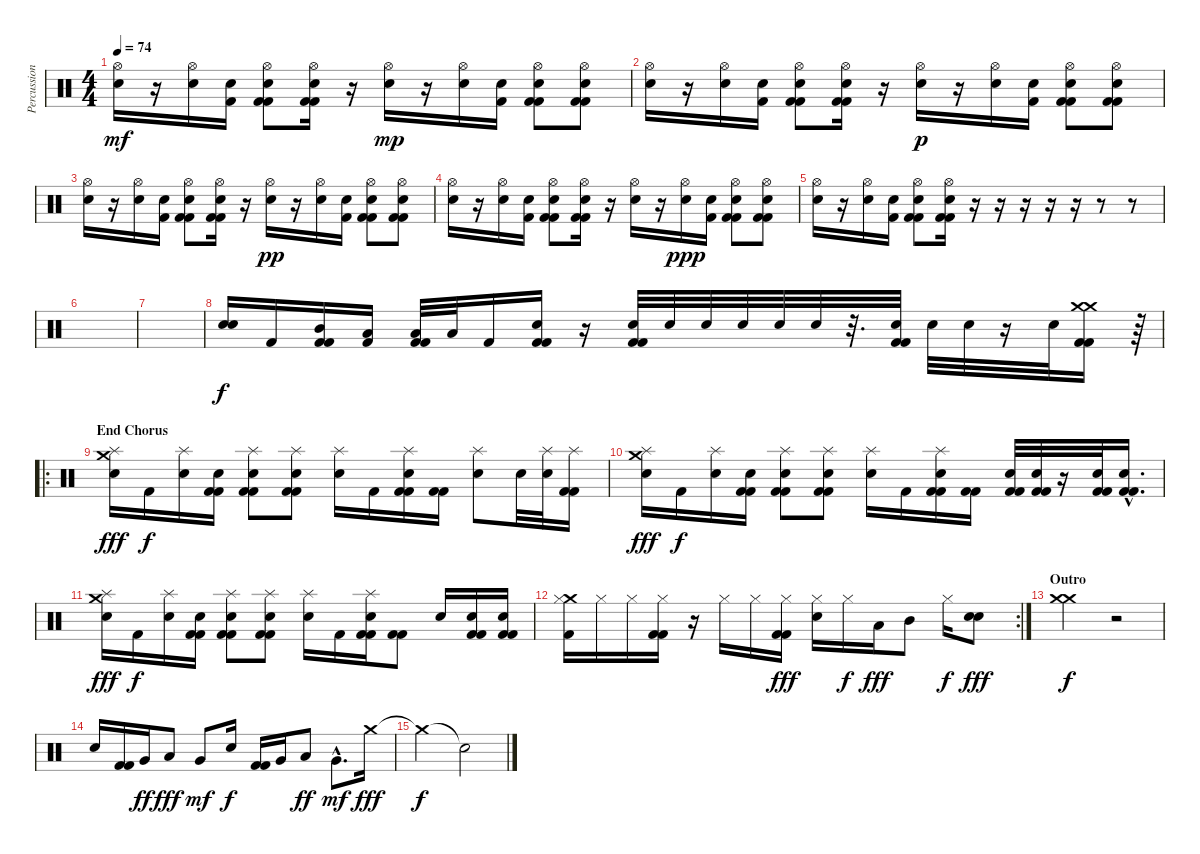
\track ("Percussion" "Percussion") {instrument percussion}
\staff {score}
\articulation defaults
\ts (4 4)
\tempo 74
\clef neutral
\ks c
("Hi-Hat (open)" "Snare (hit) 2").16{dy mf} r.16 ("Hi-Hat (open)" "Snare (hit) 2").16 ("Snare (hit) 2" "Kick (hit) 2").16 ("Hi-Hat (open)" "Snare (hit) 2" "Kick (hit) 2" "Kick (hit) 2").8 ("Hi-Hat (open)" "Snare (hit) 2" "Kick (hit) 2" "Kick (hit) 2").16 r.16 ("Hi-Hat (open)" "Snare (hit) 2").16{dy mp} r.16 ("Hi-Hat (open)" "Snare (hit) 2").16 ("Snare (hit) 2" "Kick (hit) 2").16 ("Hi-Hat (open)" "Snare (hit) 2" "Kick (hit) 2" "Kick (hit) 2").8 ("Hi-Hat (open)" "Snare (hit) 2" "Kick (hit) 2" "Kick (hit) 2").8 |
("Hi-Hat (open)" "Snare (hit) 2").16 r.16 ("Hi-Hat (open)" "Snare (hit) 2").16 ("Snare (hit) 2" "Kick (hit) 2").16 ("Hi-Hat (open)" "Snare (hit) 2" "Kick (hit) 2" "Kick (hit) 2").8 ("Hi-Hat (open)" "Snare (hit) 2" "Kick (hit) 2" "Kick (hit) 2").16 r.16 ("Hi-Hat (open)" "Snare (hit) 2").16{dy p} r.16 ("Hi-Hat (open)" "Snare (hit) 2").16 ("Snare (hit) 2" "Kick (hit) 2").16 ("Hi-Hat (open)" "Snare (hit) 2" "Kick (hit) 2" "Kick (hit) 2").8 ("Hi-Hat (open)" "Snare (hit) 2" "Kick (hit) 2" "Kick (hit) 2").8 |
("Hi-Hat (open)" "Snare (hit) 2").16 r.16 ("Hi-Hat (open)" "Snare (hit) 2").16 ("Snare (hit) 2" "Kick (hit) 2").16 ("Hi-Hat (open)" "Snare (hit) 2" "Kick (hit) 2" "Kick (hit) 2").8 ("Hi-Hat (open)" "Snare (hit) 2" "Kick (hit) 2" "Kick (hit) 2").16 r.16 ("Hi-Hat (open)" "Snare (hit) 2").16{dy pp} r.16 ("Hi-Hat (open)" "Snare (hit) 2").16 ("Snare (hit) 2" "Kick (hit) 2").16 ("Hi-Hat (open)" "Snare (hit) 2" "Kick (hit) 2" "Kick (hit) 2").8 ("Hi-Hat (open)" "Snare (hit) 2" "Kick (hit) 2" "Kick (hit) 2").8 |
("Hi-Hat (open)" "Snare (hit) 2").16 r.16 ("Hi-Hat (open)" "Snare (hit) 2").16 ("Snare (hit) 2" "Kick (hit) 2").16 ("Hi-Hat (open)" "Snare (hit) 2" "Kick (hit) 2" "Kick (hit) 2").8 ("Hi-Hat (open)" "Snare (hit) 2" "Kick (hit) 2" "Kick (hit) 2").16 r.16 ("Hi-Hat (open)" "Snare (hit) 2").16 r.16 ("Hi-Hat (open)" "Snare (hit) 2").16{dy ppp} ("Snare (hit) 2" "Kick (hit) 2").16 ("Hi-Hat (open)" "Snare (hit) 2" "Kick (hit) 2" "Kick (hit) 2").8 ("Hi-Hat (open)" "Snare (hit) 2" "Kick (hit) 2" "Kick (hit) 2").8 |
("Hi-Hat (open)" "Snare (hit) 2").16 r.16 ("Hi-Hat (open)" "Snare (hit) 2").16 ("Snare (hit) 2" "Kick (hit) 2").16 ("Hi-Hat (open)" "Snare (hit) 2" "Kick (hit) 2" "Kick (hit) 2").8 ("Hi-Hat (open)" "Snare (hit) 2" "Kick (hit) 2" "Kick (hit) 2").16 r.16 r.16 r.16 r.16 r.16 r.8 r.8 |
|
|
("Snare (hit) 2" "Snare (hit) 2").16{dy f} "Kick (hit) 2".16 ("Mid Tom (hit)" "Kick (hit) 2" "Kick (hit) 2").16 ("Low Tom (hit)" "Kick (hit) 2").16 ("Low Tom (hit)" "Kick (hit) 2" "Kick (hit) 2").32 "Low Tom (hit)".32 "Kick (hit) 2".16 ("Snare (hit) 2" "Kick (hit) 2" "Kick (hit) 2").16 r.16 ("Snare (hit) 2" "Kick (hit) 2" "Kick (hit) 2").32 "Snare (hit) 2".32 "Snare (hit) 2".32 "Snare (hit) 2".32 "Snare (hit) 2".32 "Snare (hit) 2".32 r.32{d} ("Snare (hit) 2" "Kick (hit) 2" "Kick (hit) 2").32 "Snare (hit) 2".32 "Snare (hit) 2".32 r.16 "Snare (hit) 2".32 ("Crash medium (hit)" "Crash medium (hit)" "Kick (hit) 2" "Kick (hit) 2").16 r.64 |
\ro
\section ("" "End Chorus")
("Crash medium (hit)" "Splash (hit)" "Snare (hit) 2").16{dy fff} "Kick (hit) 2".16{dy f} ("Splash (hit)" "Snare (hit) 2").16 ("Snare (hit) 2" "Kick (hit) 2" "Kick (hit) 2").16 ("Splash (hit)" "Snare (hit) 2" "Kick (hit) 2" "Kick (hit) 2").8 ("Splash (hit)" "Snare (hit) 2" "Kick (hit) 2" "Kick (hit) 2").8 ("Splash (hit)" "Snare (hit) 2").16 "Kick (hit) 2".16 ("Splash (hit)" "Snare (hit) 2" "Kick (hit) 2" "Kick (hit) 2").16 ("Kick (hit) 2" "Kick (hit) 2").16 ("Splash (hit)" "Snare (hit) 2").8 "Snare (hit) 2".32 ("Splash (hit)" "Snare (hit) 2").32 ("Splash (hit)" "Kick (hit) 2" "Kick (hit) 2").16 |
("Crash medium (hit)" "Splash (hit)" "Snare (hit) 2").16{dy fff} "Kick (hit) 2".16{dy f} ("Splash (hit)" "Snare (hit) 2").16 ("Snare (hit) 2" "Kick (hit) 2" "Kick (hit) 2").16 ("Splash (hit)" "Snare (hit) 2" "Kick (hit) 2" "Kick (hit) 2").8 ("Splash (hit)" "Snare (hit) 2" "Kick (hit) 2" "Kick (hit) 2").8 ("Splash (hit)" "Snare (hit) 2").16 "Kick (hit) 2".16 ("Splash (hit)" "Snare (hit) 2" "Kick (hit) 2" "Kick (hit) 2").16 ("Kick (hit) 2" "Kick (hit) 2").16 ("Snare (hit) 2" "Kick (hit) 2" "Kick (hit) 2").32 ("Snare (hit) 2" "Kick (hit) 2" "Kick (hit) 2").32 r.16 ("Snare (hit) 2" "Kick (hit) 2" "Kick (hit) 2").32 ("Snare (hit) 2"{hac} "Kick (hit) 2"{hac} "Kick (hit) 2"{hac}).16{d} |
("Crash medium (hit)" "Splash (hit)" "Snare (hit) 2").16{dy fff} "Kick (hit) 2".16{dy f} ("Splash (hit)" "Snare (hit) 2").16 ("Snare (hit) 2" "Kick (hit) 2" "Kick (hit) 2").16 ("Splash (hit)" "Snare (hit) 2" "Kick (hit) 2" "Kick (hit) 2").8 ("Splash (hit)" "Snare (hit) 2" "Kick (hit) 2" "Kick (hit) 2").8 ("Splash (hit)" "Snare (hit) 2").16 "Kick (hit) 2".16 ("Splash (hit)" "Snare (hit) 2" "Kick (hit) 2" "Kick (hit) 2").16 ("Kick (hit) 2" "Kick (hit) 2").8 "Snare (hit) 2".16 ("Snare (hit) 2" "Kick (hit) 2" "Kick (hit) 2").16 ("Snare (hit) 2" "Kick (hit) 2" "Kick (hit) 2").16 |
\rc 2
("Crash medium (hit)" "Hi-Hat (closed)" "Kick (hit) 2").16 "Hi-Hat (closed)".16 "Hi-Hat (closed)".16 ("Hi-Hat (closed)" "Kick (hit) 2" "Kick (hit) 2").16 r.16 "Hi-Hat (closed)".16 "Hi-Hat (closed)".16 ("Hi-Hat (closed)" "Kick (hit) 2" "Kick (hit) 2").16{dy fff} ("Hi-Hat (closed)" "Snare (hit) 2").16 "Hi-Hat (closed)".16{dy f} "Low Tom (hit)".16{dy fff} "Mid Tom (hit)".8 "Hi-Hat (closed)".16{dy f} ("Snare (hit) 2" "Snare (hit) 2").8{dy fff} |
\section ("" "Outro")
("Crash medium (hit)" "Crash medium (hit)").2{dy f} r.2 |
"Electric Snare (hit)".16 ("Kick (hit) 2" "Kick (hit) 2").16 "Very Low Tom (hit)".16{dy ff} "Low Tom (hit)".8{dy fff} "Very Low Tom (hit)".8{dy mf} "Electric Snare (hit)".16{dy f} ("Kick (hit) 2" "Kick (hit) 2").16 "Very Low Tom (hit)".16 "Low Tom (hit)".8{dy ff} "Very Low Tom (hit)"{hac}.8{d dy mf} "Crash medium (hit)".16{dy fff} |
"Crash medium (hit)"{t}.2{dy f} "Snare (hit)"{t}.2
